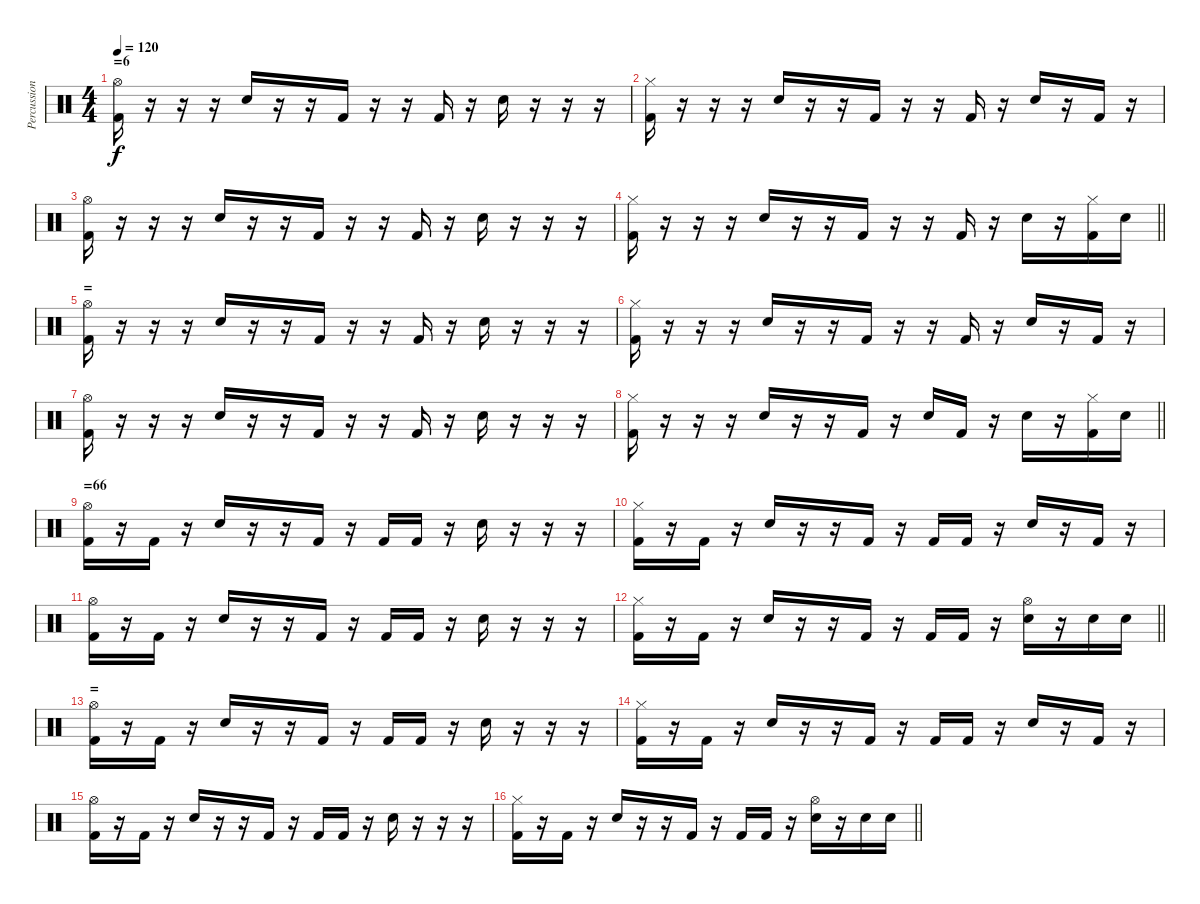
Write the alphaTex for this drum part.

\track ("Percussion" "Percussion") {instrument percussion}
\staff {score}
\articulation defaults
\ts (4 4)
\section ("" "=6")
\tempo 120
\clef neutral
\ks c
("Kick (hit) 2" "Hi-Hat (open)").16{dy f} r.16 r.16 r.16 "Electric Snare (hit)".16 r.16 r.16 "Kick (hit) 2".16 r.16 r.16 "Kick (hit) 2".16 r.16 "Electric Snare (hit)".16 r.16 r.16 r.16 |
("Kick (hit) 2" "Hi-Hat (closed)").16 r.16 r.16 r.16 "Electric Snare (hit)".16 r.16 r.16 "Kick (hit) 2".16 r.16 r.16 "Kick (hit) 2".16 r.16 "Electric Snare (hit)".16 r.16 "Kick (hit) 2".16 r.16 |
("Kick (hit) 2" "Hi-Hat (open)").16 r.16 r.16 r.16 "Electric Snare (hit)".16 r.16 r.16 "Kick (hit) 2".16 r.16 r.16 "Kick (hit) 2".16 r.16 "Electric Snare (hit)".16 r.16 r.16 r.16 |
\barLineRight lightlight
("Kick (hit) 2" "Hi-Hat (closed)").16 r.16 r.16 r.16 "Electric Snare (hit)".16 r.16 r.16 "Kick (hit) 2".16 r.16 r.16 "Kick (hit) 2".16 r.16 "Electric Snare (hit)".16 r.16 ("Kick (hit) 2" "Hi-Hat (closed)").16 "Electric Snare (hit)".16 |
\section ("" "=")
("Kick (hit) 2" "Hi-Hat (open)").16 r.16 r.16 r.16 "Electric Snare (hit)".16 r.16 r.16 "Kick (hit) 2".16 r.16 r.16 "Kick (hit) 2".16 r.16 "Electric Snare (hit)".16 r.16 r.16 r.16 |
("Kick (hit) 2" "Hi-Hat (closed)").16 r.16 r.16 r.16 "Electric Snare (hit)".16 r.16 r.16 "Kick (hit) 2".16 r.16 r.16 "Kick (hit) 2".16 r.16 "Electric Snare (hit)".16 r.16 "Kick (hit) 2".16 r.16 |
("Kick (hit) 2" "Hi-Hat (open)").16 r.16 r.16 r.16 "Electric Snare (hit)".16 r.16 r.16 "Kick (hit) 2".16 r.16 r.16 "Kick (hit) 2".16 r.16 "Electric Snare (hit)".16 r.16 r.16 r.16 |
\barLineRight lightlight
("Kick (hit) 2" "Hi-Hat (closed)").16 r.16 r.16 r.16 "Electric Snare (hit)".16 r.16 r.16 "Kick (hit) 2".16 r.16 "Electric Snare (hit)".16 "Kick (hit) 2".16 r.16 "Electric Snare (hit)".16 r.16 ("Kick (hit) 2" "Hi-Hat (closed)").16 "Electric Snare (hit)".16 |
\section ("" "=66")
("Kick (hit) 2" "Hi-Hat (open)").16 r.16 "Kick (hit) 2".16 r.16 "Electric Snare (hit)".16 r.16 r.16 "Kick (hit) 2".16 r.16 "Kick (hit) 2".16 "Kick (hit) 2".16 r.16 "Electric Snare (hit)".16 r.16 r.16 r.16 |
("Kick (hit) 2" "Hi-Hat (closed)").16 r.16 "Kick (hit) 2".16 r.16 "Electric Snare (hit)".16 r.16 r.16 "Kick (hit) 2".16 r.16 "Kick (hit) 2".16 "Kick (hit) 2".16 r.16 "Electric Snare (hit)".16 r.16 "Kick (hit) 2".16 r.16 |
("Kick (hit) 2" "Hi-Hat (open)").16 r.16 "Kick (hit) 2".16 r.16 "Electric Snare (hit)".16 r.16 r.16 "Kick (hit) 2".16 r.16 "Kick (hit) 2".16 "Kick (hit) 2".16 r.16 "Electric Snare (hit)".16 r.16 r.16 r.16 |
\barLineRight lightlight
("Kick (hit) 2" "Hi-Hat (closed)").16 r.16 "Kick (hit) 2".16 r.16 "Electric Snare (hit)".16 r.16 r.16 "Kick (hit) 2".16 r.16 "Kick (hit) 2".16 "Kick (hit) 2".16 r.16 ("Electric Snare (hit)" "Hi-Hat (open)").16 r.16 "Electric Snare (hit)".16 "Electric Snare (hit)".16 |
\section ("" "=")
("Kick (hit) 2" "Hi-Hat (open)").16 r.16 "Kick (hit) 2".16 r.16 "Electric Snare (hit)".16 r.16 r.16 "Kick (hit) 2".16 r.16 "Kick (hit) 2".16 "Kick (hit) 2".16 r.16 "Electric Snare (hit)".16 r.16 r.16 r.16 |
("Kick (hit) 2" "Hi-Hat (closed)").16 r.16 "Kick (hit) 2".16 r.16 "Electric Snare (hit)".16 r.16 r.16 "Kick (hit) 2".16 r.16 "Kick (hit) 2".16 "Kick (hit) 2".16 r.16 "Electric Snare (hit)".16 r.16 "Kick (hit) 2".16 r.16 |
("Kick (hit) 2" "Hi-Hat (open)").16 r.16 "Kick (hit) 2".16 r.16 "Electric Snare (hit)".16 r.16 r.16 "Kick (hit) 2".16 r.16 "Kick (hit) 2".16 "Kick (hit) 2".16 r.16 "Electric Snare (hit)".16 r.16 r.16 r.16 |
\barLineRight lightlight
("Kick (hit) 2" "Hi-Hat (closed)").16 r.16 "Kick (hit) 2".16 r.16 "Electric Snare (hit)".16 r.16 r.16 "Kick (hit) 2".16 r.16 "Kick (hit) 2".16 "Kick (hit) 2".16 r.16 ("Electric Snare (hit)" "Hi-Hat (open)").16 r.16 "Electric Snare (hit)".16 "Electric Snare (hit)".16
